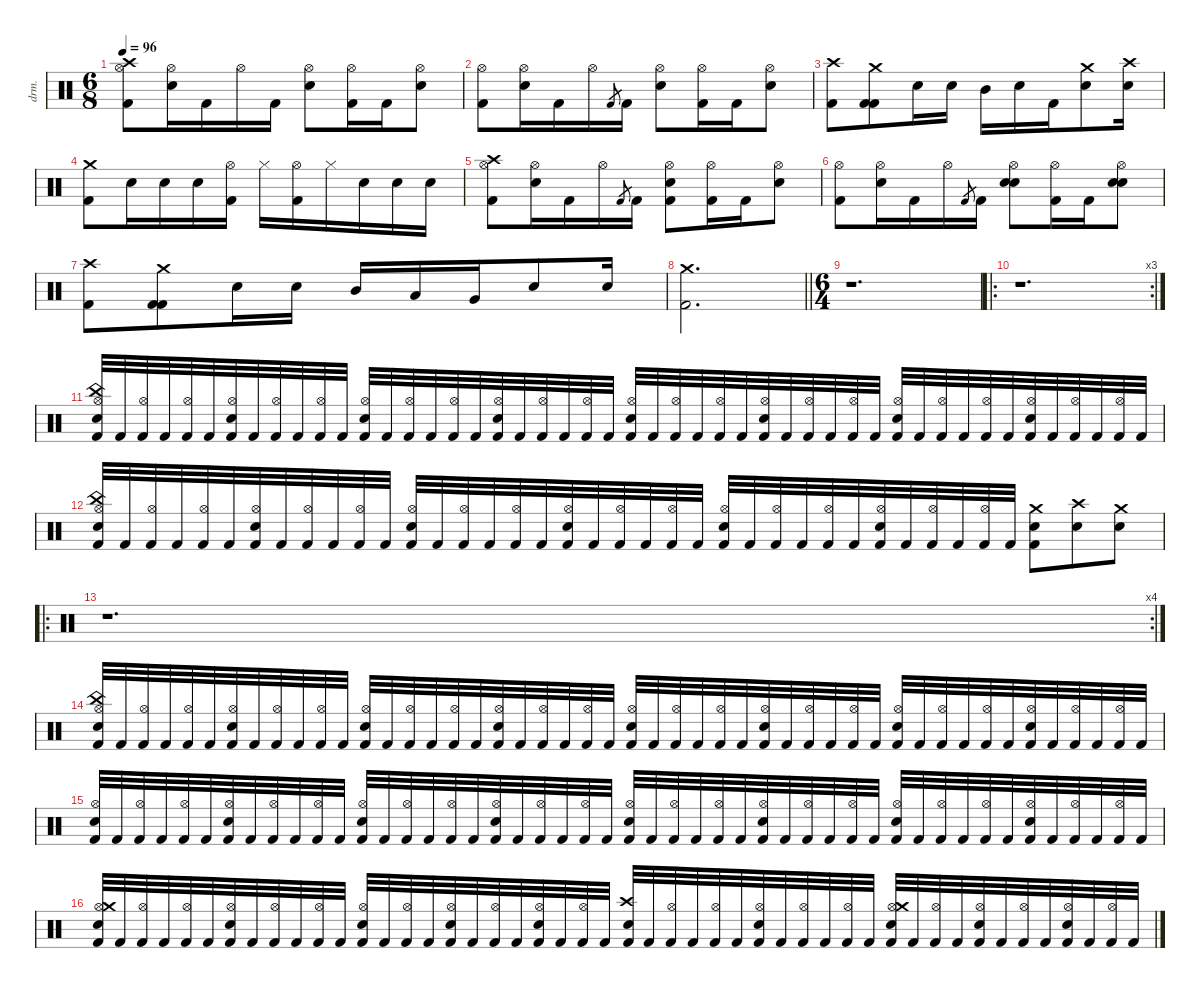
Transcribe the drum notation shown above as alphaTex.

\defaultSystemsLayout 4
\hideDynamics
\bracketExtendMode nobrackets
\otherSystemsTrackNameOrientation horizontal
\track ("Drums" "drm.") {defaultSystemsLayout 4 instrument percussion}
\staff {score}
\articulation defaults
\ts (6 8)
\tempo 96
\clef neutral
\ks aminor
("Hi-Hat (open)" "Crash high (hit)" "Kick (hit) 2").8{dy ff beam Down} ("Hi-Hat (open)" "Snare (hit) 2").16{beam Down} "Kick (hit) 2".16{beam Down} "Hi-Hat (open)".16{beam Down} "Kick (hit) 2".16{dy f beam Down} ("Hi-Hat (open)" "Snare (hit) 2").8{dy ff beam Down} ("Hi-Hat (open)" "Kick (hit) 2").16{beam Down} "Kick (hit) 2".16{dy f beam Down} ("Hi-Hat (open)" "Snare (hit) 2").8{dy ff beam Down} |
("Hi-Hat (open)" "Kick (hit) 2").8{beam Down} ("Hi-Hat (open)" "Snare (hit) 2").16{beam Down} "Kick (hit) 2".16{dy f beam Down} "Hi-Hat (open)".16{dy ff beam Down} "Kick (hit) 2".8{gr dy f beam Up} "Kick (hit) 2".16{beam Down} ("Hi-Hat (open)" "Snare (hit) 2").8{dy ff beam Down} ("Hi-Hat (open)" "Kick (hit) 2").16{beam Down} "Kick (hit) 2".16{dy f beam Down} ("Hi-Hat (open)" "Snare (hit) 2").8{dy ff beam Down} |
("Crash high (hit)" "Kick (hit) 2").8{dy fff beam Down} ("Crash medium (hit)" "Kick (hit) 2" "Kick (hit) 2").8{beam Down} "Snare (hit) 2".16{dy ff beam Down} "Snare (hit) 2".16{dy f beam Down} "Mid Tom (hit)".16{dy ff beam Down} "Snare (hit) 2".16{beam Down} "Kick (hit) 2".16{dy f beam Down} ("Crash medium (hit)" "Snare (hit) 2").8{dy fff beam Down} ("Crash high (hit)" "Snare (hit) 2").16{beam Down} |
("Crash medium (hit)" "Kick (hit) 2").8{dy ff beam Down} "Snare (hit) 2".16{beam Down} "Snare (hit) 2".16{beam Down} "Snare (hit) 2".16{dy f beam Down} ("Hi-Hat (open)" "Kick (hit) 2").16{dy fff beam Down} "Hi-Hat (closed)".16{dy ff beam Down} ("Hi-Hat (open)" "Kick (hit) 2").16{dy fff beam Down} "Hi-Hat (closed)".16{dy ff beam Down} "Snare (hit) 2".16{beam Down} "Snare (hit) 2".16{beam Down} "Snare (hit) 2".16{beam Down} |
("Hi-Hat (open)" "Crash high (hit)" "Kick (hit) 2").8{beam Down} ("Hi-Hat (open)" "Snare (hit) 2").16{beam Down} "Kick (hit) 2".16{beam Down} "Hi-Hat (open)".16{beam Down} "Kick (hit) 2".8{gr dy f beam Up} "Kick (hit) 2".16{beam Down} ("Hi-Hat (open)" "Snare (hit) 2" "Kick (hit) 2").8{dy ff beam Down} ("Hi-Hat (open)" "Kick (hit) 2").16{beam Down} "Kick (hit) 2".16{dy f beam Down} ("Hi-Hat (open)" "Snare (hit) 2").8{dy ff beam Down} |
("Hi-Hat (open)" "Kick (hit) 2").8{beam Down} ("Hi-Hat (open)" "Snare (hit) 2").16{beam Down} "Kick (hit) 2".16{dy f beam Down} "Hi-Hat (open)".16{dy ff beam Down} "Kick (hit) 2".8{gr dy f beam Up} "Kick (hit) 2".16{beam Down} ("Hi-Hat (open)" "Snare (hit) 2" "Metronome (bell)").8{dy ff beam Down} ("Hi-Hat (open)" "Kick (hit) 2").16{beam Down} "Kick (hit) 2".16{dy f beam Down} ("Hi-Hat (open)" "Snare (hit) 2" "Metronome (bell)").8{dy ff beam Down} |
("Crash high (hit)" "Kick (hit) 2").8{dy fff beam Down} ("Crash medium (hit)" "Kick (hit) 2" "Kick (hit) 2").8{beam Down} "Snare (hit) 2".16{dy ff beam Down} "Snare (hit) 2".16{dy f beam Down} "Mid Tom (hit)".16{dy ff beam Up} "Low Tom (hit)".16{beam Up} "Very Low Tom (hit)".16{dy fff beam Up} "Snare (hit) 2".8{beam Up} "Snare (hit) 2".16{beam Up} |
\barLineRight lightlight
("Crash medium (hit)" "Kick (hit) 2").2{d beam Down} |
\ts (6 4)
\beaming (8 3 3 3 3)
r.1{d beam Down} |
\ro
\rc 3
r.1{d beam Down} |
("Hi-Hat (open)" "China (hit)" "Snare (hit) 2" "Kick (hit) 2").32{dy f beam Up} "Kick (hit) 2".32{dy ff beam Up} ("Hi-Hat (open)" "Kick (hit) 2").32{dy f beam Up} "Kick (hit) 2".32{dy ff beam Up} ("Hi-Hat (open)" "Kick (hit) 2").32{dy f beam Up} "Kick (hit) 2".32{dy ff beam Up} ("Hi-Hat (open)" "Snare (hit) 2" "Kick (hit) 2").32{dy f beam Up} "Kick (hit) 2".32{dy ff beam Up} ("Hi-Hat (open)" "Kick (hit) 2").32{dy f beam Up} "Kick (hit) 2".32{dy ff beam Up} ("Hi-Hat (open)" "Kick (hit) 2").32{dy f beam Up} "Kick (hit) 2".32{dy ff beam Up} ("Hi-Hat (open)" "Snare (hit) 2" "Kick (hit) 2").32{dy f beam Up} "Kick (hit) 2".32{dy ff beam Up} ("Hi-Hat (open)" "Kick (hit) 2").32{dy f beam Up} "Kick (hit) 2".32{dy ff beam Up} ("Hi-Hat (open)" "Kick (hit) 2").32{dy f beam Up} "Kick (hit) 2".32{dy ff beam Up} ("Hi-Hat (open)" "Snare (hit) 2" "Kick (hit) 2").32{dy f beam Up} "Kick (hit) 2".32{dy ff beam Up} ("Hi-Hat (open)" "Kick (hit) 2").32{dy f beam Up} "Kick (hit) 2".32{dy ff beam Up} ("Hi-Hat (open)" "Kick (hit) 2").32{dy f beam Up} "Kick (hit) 2".32{dy ff beam Up} ("Hi-Hat (open)" "Snare (hit) 2" "Kick (hit) 2").32{dy f beam Up} "Kick (hit) 2".32{dy ff beam Up} ("Hi-Hat (open)" "Kick (hit) 2").32{dy f beam Up} "Kick (hit) 2".32{dy ff beam Up} ("Hi-Hat (open)" "Kick (hit) 2").32{dy f beam Up} "Kick (hit) 2".32{dy ff beam Up} ("Hi-Hat (open)" "Snare (hit) 2" "Kick (hit) 2").32{dy f beam Up} "Kick (hit) 2".32{dy ff beam Up} ("Hi-Hat (open)" "Kick (hit) 2").32{dy f beam Up} "Kick (hit) 2".32{dy ff beam Up} ("Hi-Hat (open)" "Kick (hit) 2").32{dy f beam Up} "Kick (hit) 2".32{dy ff beam Up} ("Hi-Hat (open)" "Snare (hit) 2" "Kick (hit) 2").32{dy f beam Up} "Kick (hit) 2".32{dy ff beam Up} ("Hi-Hat (open)" "Kick (hit) 2").32{dy f beam Up} "Kick (hit) 2".32{dy ff beam Up} ("Hi-Hat (open)" "Kick (hit) 2").32{dy f beam Up} "Kick (hit) 2".32{dy ff beam Up} ("Hi-Hat (open)" "Snare (hit) 2" "Kick (hit) 2").32{dy f beam Up} "Kick (hit) 2".32{dy ff beam Up} ("Hi-Hat (open)" "Kick (hit) 2").32{dy f beam Up} "Kick (hit) 2".32{dy ff beam Up} ("Hi-Hat (open)" "Kick (hit) 2").32{dy f beam Up} "Kick (hit) 2".32{dy ff beam Up} |
("Hi-Hat (open)" "China (hit)" "Snare (hit) 2" "Kick (hit) 2").32{dy f beam Up} "Kick (hit) 2".32{dy ff beam Up} ("Hi-Hat (open)" "Kick (hit) 2").32{dy f beam Up} "Kick (hit) 2".32{dy ff beam Up} ("Hi-Hat (open)" "Kick (hit) 2").32{dy f beam Up} "Kick (hit) 2".32{dy ff beam Up} ("Hi-Hat (open)" "Snare (hit) 2" "Kick (hit) 2").32{dy f beam Up} "Kick (hit) 2".32{dy ff beam Up} ("Hi-Hat (open)" "Kick (hit) 2").32{dy f beam Up} "Kick (hit) 2".32{dy ff beam Up} ("Hi-Hat (open)" "Kick (hit) 2").32{dy f beam Up} "Kick (hit) 2".32{dy ff beam Up} ("Hi-Hat (open)" "Snare (hit) 2" "Kick (hit) 2").32{dy f beam Up} "Kick (hit) 2".32{dy ff beam Up} ("Hi-Hat (open)" "Kick (hit) 2").32{dy f beam Up} "Kick (hit) 2".32{dy ff beam Up} ("Hi-Hat (open)" "Kick (hit) 2").32{dy f beam Up} "Kick (hit) 2".32{dy ff beam Up} ("Hi-Hat (open)" "Snare (hit) 2" "Kick (hit) 2").32{dy f beam Up} "Kick (hit) 2".32{dy ff beam Up} ("Hi-Hat (open)" "Kick (hit) 2").32{dy f beam Up} "Kick (hit) 2".32{dy ff beam Up} ("Hi-Hat (open)" "Kick (hit) 2").32{dy f beam Up} "Kick (hit) 2".32{dy ff beam Up} ("Hi-Hat (open)" "Snare (hit) 2" "Kick (hit) 2").32{dy f beam Up} "Kick (hit) 2".32{dy ff beam Up} ("Hi-Hat (open)" "Kick (hit) 2").32{dy f beam Up} "Kick (hit) 2".32{dy ff beam Up} ("Hi-Hat (open)" "Kick (hit) 2").32{dy f beam Up} "Kick (hit) 2".32{dy ff beam Up} ("Hi-Hat (open)" "Snare (hit) 2" "Kick (hit) 2").32{dy f beam Up} "Kick (hit) 2".32{dy ff beam Up} ("Hi-Hat (open)" "Kick (hit) 2").32{dy f beam Up} "Kick (hit) 2".32{dy ff beam Up} ("Hi-Hat (open)" "Kick (hit) 2").32{dy f beam Up} "Kick (hit) 2".32{dy ff beam Up} ("Crash medium (hit)" "Snare (hit) 2" "Kick (hit) 2").8{dy fff beam Down} ("Crash high (hit)" "Snare (hit) 2").8{beam Down} ("Crash medium (hit)" "Snare (hit) 2").8{beam Down} |
\ro
\rc 4
r.1{d beam Down} |
("Hi-Hat (open)" "China (hit)" "Snare (hit) 2" "Kick (hit) 2").32{dy f beam Up} "Kick (hit) 2".32{dy ff beam Up} ("Hi-Hat (open)" "Kick (hit) 2").32{dy f beam Up} "Kick (hit) 2".32{dy ff beam Up} ("Hi-Hat (open)" "Kick (hit) 2").32{dy f beam Up} "Kick (hit) 2".32{dy ff beam Up} ("Hi-Hat (open)" "Snare (hit) 2" "Kick (hit) 2").32{dy f beam Up} "Kick (hit) 2".32{dy ff beam Up} ("Hi-Hat (open)" "Kick (hit) 2").32{dy f beam Up} "Kick (hit) 2".32{dy ff beam Up} ("Hi-Hat (open)" "Kick (hit) 2").32{dy f beam Up} "Kick (hit) 2".32{dy ff beam Up} ("Hi-Hat (open)" "Snare (hit) 2" "Kick (hit) 2").32{dy f beam Up} "Kick (hit) 2".32{dy ff beam Up} ("Hi-Hat (open)" "Kick (hit) 2").32{dy f beam Up} "Kick (hit) 2".32{dy ff beam Up} ("Hi-Hat (open)" "Kick (hit) 2").32{dy f beam Up} "Kick (hit) 2".32{dy ff beam Up} ("Hi-Hat (open)" "Snare (hit) 2" "Kick (hit) 2").32{dy f beam Up} "Kick (hit) 2".32{dy ff beam Up} ("Hi-Hat (open)" "Kick (hit) 2").32{dy f beam Up} "Kick (hit) 2".32{dy ff beam Up} ("Hi-Hat (open)" "Kick (hit) 2").32{dy f beam Up} "Kick (hit) 2".32{dy ff beam Up} ("Hi-Hat (open)" "Snare (hit) 2" "Kick (hit) 2").32{dy f beam Up} "Kick (hit) 2".32{dy ff beam Up} ("Hi-Hat (open)" "Kick (hit) 2").32{dy f beam Up} "Kick (hit) 2".32{dy ff beam Up} ("Hi-Hat (open)" "Kick (hit) 2").32{dy f beam Up} "Kick (hit) 2".32{dy ff beam Up} ("Hi-Hat (open)" "Snare (hit) 2" "Kick (hit) 2").32{dy f beam Up} "Kick (hit) 2".32{dy ff beam Up} ("Hi-Hat (open)" "Kick (hit) 2").32{dy f beam Up} "Kick (hit) 2".32{dy ff beam Up} ("Hi-Hat (open)" "Kick (hit) 2").32{dy f beam Up} "Kick (hit) 2".32{dy ff beam Up} ("Hi-Hat (open)" "Snare (hit) 2" "Kick (hit) 2").32{dy f beam Up} "Kick (hit) 2".32{dy ff beam Up} ("Hi-Hat (open)" "Kick (hit) 2").32{dy f beam Up} "Kick (hit) 2".32{dy ff beam Up} ("Hi-Hat (open)" "Kick (hit) 2").32{dy f beam Up} "Kick (hit) 2".32{dy ff beam Up} ("Hi-Hat (open)" "Snare (hit) 2" "Kick (hit) 2").32{dy f beam Up} "Kick (hit) 2".32{dy ff beam Up} ("Hi-Hat (open)" "Kick (hit) 2").32{dy f beam Up} "Kick (hit) 2".32{dy ff beam Up} ("Hi-Hat (open)" "Kick (hit) 2").32{dy f beam Up} "Kick (hit) 2".32{dy ff beam Up} |
("Hi-Hat (open)" "Snare (hit) 2" "Kick (hit) 2").32{dy f beam Up} "Kick (hit) 2".32{dy ff beam Up} ("Hi-Hat (open)" "Kick (hit) 2").32{dy f beam Up} "Kick (hit) 2".32{dy ff beam Up} ("Hi-Hat (open)" "Kick (hit) 2").32{dy f beam Up} "Kick (hit) 2".32{dy ff beam Up} ("Hi-Hat (open)" "Snare (hit) 2" "Kick (hit) 2").32{dy f beam Up} "Kick (hit) 2".32{dy ff beam Up} ("Hi-Hat (open)" "Kick (hit) 2").32{dy f beam Up} "Kick (hit) 2".32{dy ff beam Up} ("Hi-Hat (open)" "Kick (hit) 2").32{dy f beam Up} "Kick (hit) 2".32{dy ff beam Up} ("Hi-Hat (open)" "Snare (hit) 2" "Kick (hit) 2").32{dy f beam Up} "Kick (hit) 2".32{dy ff beam Up} ("Hi-Hat (open)" "Kick (hit) 2").32{dy f beam Up} "Kick (hit) 2".32{dy ff beam Up} ("Hi-Hat (open)" "Kick (hit) 2").32{dy f beam Up} "Kick (hit) 2".32{dy ff beam Up} ("Hi-Hat (open)" "Snare (hit) 2" "Kick (hit) 2").32{dy f beam Up} "Kick (hit) 2".32{dy ff beam Up} ("Hi-Hat (open)" "Kick (hit) 2").32{dy f beam Up} "Kick (hit) 2".32{dy ff beam Up} ("Hi-Hat (open)" "Kick (hit) 2").32{dy f beam Up} "Kick (hit) 2".32{dy ff beam Up} ("Hi-Hat (open)" "Snare (hit) 2" "Kick (hit) 2").32{dy f beam Up} "Kick (hit) 2".32{dy ff beam Up} ("Hi-Hat (open)" "Kick (hit) 2").32{dy f beam Up} "Kick (hit) 2".32{dy ff beam Up} ("Hi-Hat (open)" "Kick (hit) 2").32{dy f beam Up} "Kick (hit) 2".32{dy ff beam Up} ("Hi-Hat (open)" "Snare (hit) 2" "Kick (hit) 2").32{dy f beam Up} "Kick (hit) 2".32{dy ff beam Up} ("Hi-Hat (open)" "Kick (hit) 2").32{dy f beam Up} "Kick (hit) 2".32{dy ff beam Up} ("Hi-Hat (open)" "Kick (hit) 2").32{dy f beam Up} "Kick (hit) 2".32{dy ff beam Up} ("Hi-Hat (open)" "Snare (hit) 2" "Kick (hit) 2").32{dy f beam Up} "Kick (hit) 2".32{dy ff beam Up} ("Hi-Hat (open)" "Kick (hit) 2").32{dy f beam Up} "Kick (hit) 2".32{dy ff beam Up} ("Hi-Hat (open)" "Kick (hit) 2").32{dy f beam Up} "Kick (hit) 2".32{dy ff beam Up} ("Hi-Hat (open)" "Snare (hit) 2" "Kick (hit) 2").32{dy f beam Up} "Kick (hit) 2".32{dy ff beam Up} ("Hi-Hat (open)" "Kick (hit) 2").32{dy f beam Up} "Kick (hit) 2".32{dy ff beam Up} ("Hi-Hat (open)" "Kick (hit) 2").32{dy f beam Up} "Kick (hit) 2".32{dy ff beam Up} |
("Hi-Hat (open)" "Crash medium (hit)" "Snare (hit) 2" "Kick (hit) 2").32{dy f beam Up} "Kick (hit) 2".32{dy ff beam Up} ("Hi-Hat (open)" "Kick (hit) 2").32{dy f beam Up} "Kick (hit) 2".32{dy ff beam Up} ("Hi-Hat (open)" "Kick (hit) 2").32{dy f beam Up} "Kick (hit) 2".32{dy ff beam Up} ("Hi-Hat (open)" "Snare (hit) 2" "Kick (hit) 2").32{dy f beam Up} "Kick (hit) 2".32{dy ff beam Up} ("Hi-Hat (open)" "Kick (hit) 2").32{dy f beam Up} "Kick (hit) 2".32{dy ff beam Up} ("Hi-Hat (open)" "Kick (hit) 2").32{dy f beam Up} "Kick (hit) 2".32{dy ff beam Up} ("Hi-Hat (open)" "Snare (hit) 2" "Kick (hit) 2").32{dy f beam Up} "Kick (hit) 2".32{dy ff beam Up} ("Hi-Hat (open)" "Kick (hit) 2").32{dy f beam Up} "Kick (hit) 2".32{dy ff beam Up} ("Hi-Hat (open)" "Snare (hit) 2" "Kick (hit) 2").32{dy f beam Up} "Kick (hit) 2".32{dy ff beam Up} ("Hi-Hat (open)" "Kick (hit) 2").32{dy f beam Up} "Kick (hit) 2".32{dy ff beam Up} ("Hi-Hat (open)" "Snare (hit) 2" "Kick (hit) 2").32{dy f beam Up} "Kick (hit) 2".32{dy ff beam Up} ("Hi-Hat (open)" "Kick (hit) 2").32{dy f beam Up} "Kick (hit) 2".32{dy ff beam Up} ("Crash high (hit)" "Snare (hit) 2" "Kick (hit) 2").32{dy fff beam Up} "Kick (hit) 2".32{dy ff beam Up} ("Hi-Hat (open)" "Kick (hit) 2").32{dy f beam Up} "Kick (hit) 2".32{dy ff beam Up} ("Hi-Hat (open)" "Kick (hit) 2").32{dy f beam Up} "Kick (hit) 2".32{dy ff beam Up} ("Hi-Hat (open)" "Snare (hit) 2" "Kick (hit) 2").32{dy f beam Up} "Kick (hit) 2".32{dy ff beam Up} ("Hi-Hat (open)" "Kick (hit) 2").32{dy f beam Up} "Kick (hit) 2".32{dy ff beam Up} ("Hi-Hat (open)" "Kick (hit) 2").32{dy f beam Up} "Kick (hit) 2".32{dy ff beam Up} ("Hi-Hat (open)" "Crash medium (hit)" "Snare (hit) 2" "Kick (hit) 2").32{dy f beam Up} "Kick (hit) 2".32{dy ff beam Up} ("Hi-Hat (open)" "Kick (hit) 2").32{dy f beam Up} "Kick (hit) 2".32{dy ff beam Up} ("Hi-Hat (open)" "Snare (hit) 2" "Kick (hit) 2").32{dy f beam Up} "Kick (hit) 2".32{dy ff beam Up} ("Hi-Hat (open)" "Kick (hit) 2").32{dy f beam Up} "Kick (hit) 2".32{dy ff beam Up} ("Hi-Hat (open)" "Snare (hit) 2" "Kick (hit) 2").32{dy f beam Up} "Kick (hit) 2".32{dy ff beam Up} ("Hi-Hat (open)" "Kick (hit) 2").32{dy f beam Up} "Kick (hit) 2".32{dy ff beam Up}
